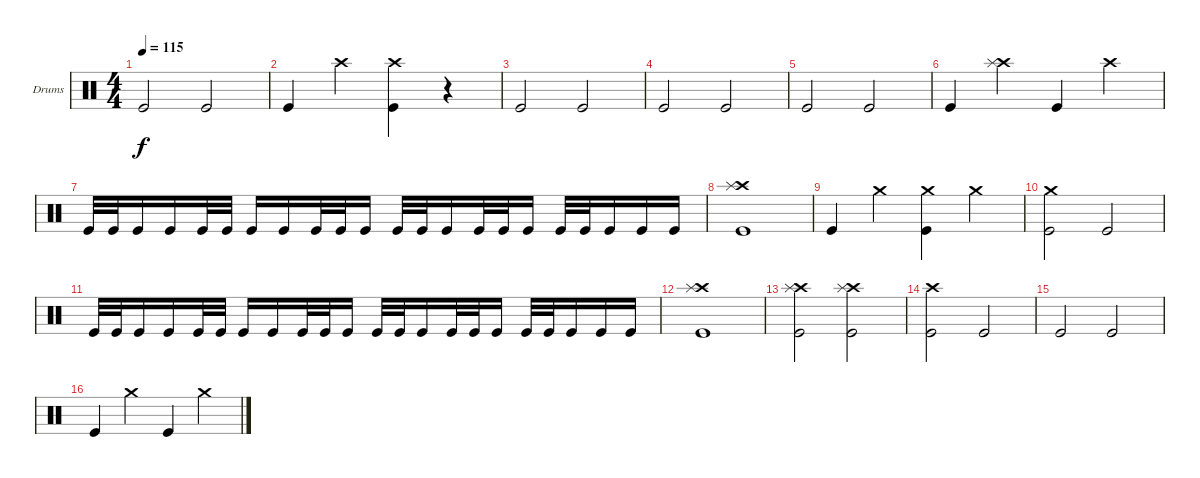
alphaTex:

\bracketExtendMode groupsimilarinstruments
\firstSystemTrackNameOrientation horizontal
\otherSystemsTrackNameOrientation horizontal
\track ("Drumkit" "Drums") {instrument percussion}
\staff {score}
\articulation defaults
\ts (4 4)
\tempo 115
\clef neutral
\ks c "Kick (hit)".2{dy f} "Kick (hit)".2
|
"Kick (hit)".4 "Crash high (hit)".4 ("Kick (hit)" "Crash high (hit)").4 r.4 |
"Kick (hit)".2 "Kick (hit)".2 |
"Kick (hit)".2 "Kick (hit)".2 |
"Kick (hit)".2 "Kick (hit)".2 |
"Kick (hit)".4 ("Crash high (hit)" "Splash (hit)").4 "Kick (hit)".4 "Crash high (hit)".4 |
"Kick (hit)".32 "Kick (hit)".32 "Kick (hit)".16 "Kick (hit)".16 "Kick (hit)".32 "Kick (hit)".32 "Kick (hit)".16 "Kick (hit)".16 "Kick (hit)".32 "Kick (hit)".32 "Kick (hit)".16 "Kick (hit)".32 "Kick (hit)".32 "Kick (hit)".16 "Kick (hit)".32 "Kick (hit)".32 "Kick (hit)".16 "Kick (hit)".32 "Kick (hit)".32 "Kick (hit)".16 "Kick (hit)".16 "Kick (hit)".16 |
("Kick (hit)" "Crash high (hit)" "Splash (hit)").1 |
"Kick (hit)".4 "Crash medium (hit)".4 ("Kick (hit)" "Crash medium (hit)").4 "Crash medium (hit)".4 |
("Kick (hit)" "Crash medium (hit)").2 "Kick (hit)".2 |
"Kick (hit)".32 "Kick (hit)".32 "Kick (hit)".16 "Kick (hit)".16 "Kick (hit)".32 "Kick (hit)".32 "Kick (hit)".16 "Kick (hit)".16 "Kick (hit)".32 "Kick (hit)".32 "Kick (hit)".16 "Kick (hit)".32 "Kick (hit)".32 "Kick (hit)".16 "Kick (hit)".32 "Kick (hit)".32 "Kick (hit)".16 "Kick (hit)".32 "Kick (hit)".32 "Kick (hit)".16 "Kick (hit)".16 "Kick (hit)".16 |
("Kick (hit)" "Crash high (hit)" "Splash (hit)").1 |
("Kick (hit)" "Crash high (hit)" "Splash (hit)").2 ("Kick (hit)" "Crash high (hit)" "Splash (hit)").2 |
("Kick (hit)" "Crash high (hit)").2 "Kick (hit)".2 |
"Kick (hit)".2 "Kick (hit)".2 |
"Kick (hit)".4 "Crash medium (hit)".4 "Kick (hit)".4 "Crash medium (hit)".4
